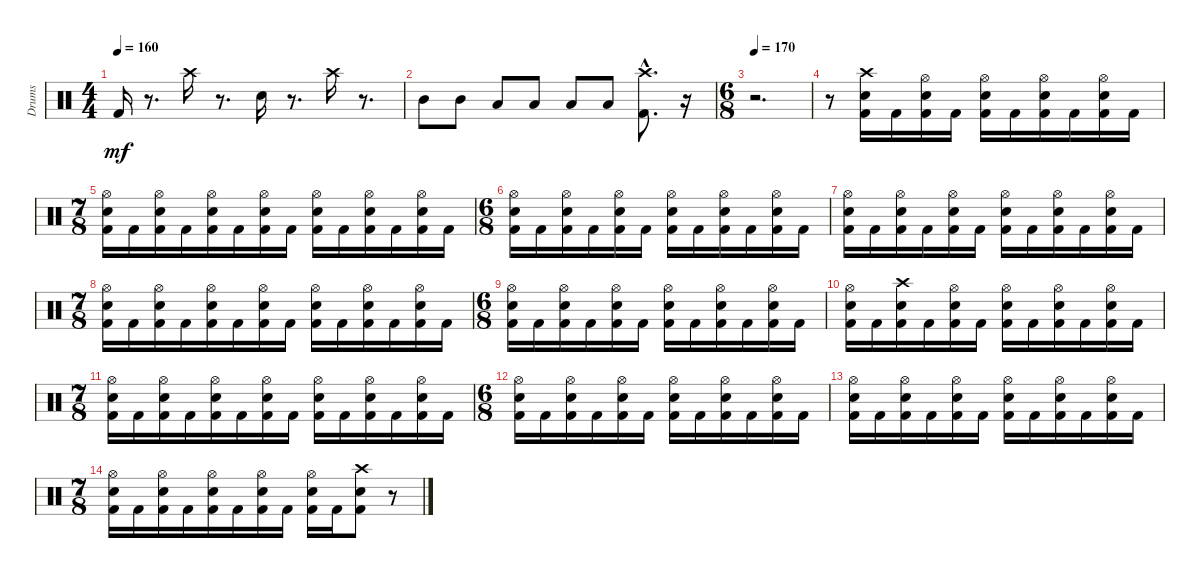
\track ("Drums               " "Drums     ") {instrument percussion}
\staff {score}
\articulation defaults
\ts (4 4)
\tempo 160
\clef neutral
\ks c "Kick (hit) 2".16{dy mf}
r.8{d} "Crash high (hit)".16 r.8{d} "Snare (hit) 2".16 r.8{d} "Crash high (hit)".16 r.8{d} |
"Mid Tom (hit)".8 "Mid Tom (hit)".8 "Low Tom (hit)".8 "Low Tom (hit)".8 "Low Floor Tom (hit)".8 "Low Floor Tom (hit)".8 ("Crash high (hit)"{hac} "Kick (hit) 2"{hac}).8{d} r.16 |
\ts (6 8)
\tempo 170
r.2{d} |
r.8 ("Kick (hit) 2" "Snare (hit) 2" "Crash high (hit)").16 "Kick (hit) 2".16 ("Kick (hit) 2" "Snare (hit) 2" "Hi-Hat (open)").16 "Kick (hit) 2".16 ("Kick (hit) 2" "Snare (hit) 2" "Hi-Hat (open)").16 "Kick (hit) 2".16 ("Kick (hit) 2" "Snare (hit) 2" "Hi-Hat (open)").16 "Kick (hit) 2".16 ("Kick (hit) 2" "Snare (hit) 2" "Hi-Hat (open)").16 "Kick (hit) 2".16 |
\ts (7 8)
("Kick (hit) 2" "Snare (hit) 2" "Hi-Hat (open)").16 "Kick (hit) 2".16 ("Kick (hit) 2" "Snare (hit) 2" "Hi-Hat (open)").16 "Kick (hit) 2".16 ("Kick (hit) 2" "Snare (hit) 2" "Hi-Hat (open)").16 "Kick (hit) 2".16 ("Kick (hit) 2" "Snare (hit) 2" "Hi-Hat (open)").16 "Kick (hit) 2".16 ("Kick (hit) 2" "Snare (hit) 2" "Hi-Hat (open)").16 "Kick (hit) 2".16 ("Kick (hit) 2" "Snare (hit) 2" "Hi-Hat (open)").16 "Kick (hit) 2".16 ("Kick (hit) 2" "Snare (hit) 2" "Hi-Hat (open)").16 "Kick (hit) 2".16 |
\ts (6 8)
("Kick (hit) 2" "Snare (hit) 2" "Hi-Hat (open)").16 "Kick (hit) 2".16 ("Kick (hit) 2" "Snare (hit) 2" "Hi-Hat (open)").16 "Kick (hit) 2".16 ("Kick (hit) 2" "Snare (hit) 2" "Hi-Hat (open)").16 "Kick (hit) 2".16 ("Kick (hit) 2" "Snare (hit) 2" "Hi-Hat (open)").16 "Kick (hit) 2".16 ("Kick (hit) 2" "Snare (hit) 2" "Hi-Hat (open)").16 "Kick (hit) 2".16 ("Kick (hit) 2" "Snare (hit) 2" "Hi-Hat (open)").16 "Kick (hit) 2".16 |
("Kick (hit) 2" "Snare (hit) 2" "Hi-Hat (open)").16 "Kick (hit) 2".16 ("Kick (hit) 2" "Snare (hit) 2" "Hi-Hat (open)").16 "Kick (hit) 2".16 ("Kick (hit) 2" "Snare (hit) 2" "Hi-Hat (open)").16 "Kick (hit) 2".16 ("Kick (hit) 2" "Snare (hit) 2" "Hi-Hat (open)").16 "Kick (hit) 2".16 ("Kick (hit) 2" "Snare (hit) 2" "Hi-Hat (open)").16 "Kick (hit) 2".16 ("Kick (hit) 2" "Snare (hit) 2" "Hi-Hat (open)").16 "Kick (hit) 2".16 |
\ts (7 8)
("Kick (hit) 2" "Snare (hit) 2" "Hi-Hat (open)").16 "Kick (hit) 2".16 ("Kick (hit) 2" "Snare (hit) 2" "Hi-Hat (open)").16 "Kick (hit) 2".16 ("Kick (hit) 2" "Snare (hit) 2" "Hi-Hat (open)").16 "Kick (hit) 2".16 ("Kick (hit) 2" "Snare (hit) 2" "Hi-Hat (open)").16 "Kick (hit) 2".16 ("Kick (hit) 2" "Snare (hit) 2" "Hi-Hat (open)").16 "Kick (hit) 2".16 ("Kick (hit) 2" "Snare (hit) 2" "Hi-Hat (open)").16 "Kick (hit) 2".16 ("Kick (hit) 2" "Snare (hit) 2" "Hi-Hat (open)").16 "Kick (hit) 2".16 |
\ts (6 8)
("Kick (hit) 2" "Snare (hit) 2" "Hi-Hat (open)").16 "Kick (hit) 2".16 ("Kick (hit) 2" "Snare (hit) 2" "Hi-Hat (open)").16 "Kick (hit) 2".16 ("Kick (hit) 2" "Snare (hit) 2" "Hi-Hat (open)").16 "Kick (hit) 2".16 ("Kick (hit) 2" "Snare (hit) 2" "Hi-Hat (open)").16 "Kick (hit) 2".16 ("Kick (hit) 2" "Snare (hit) 2" "Hi-Hat (open)").16 "Kick (hit) 2".16 ("Kick (hit) 2" "Snare (hit) 2" "Hi-Hat (open)").16 "Kick (hit) 2".16 |
("Kick (hit) 2" "Snare (hit) 2" "Hi-Hat (open)").16 "Kick (hit) 2".16 ("Kick (hit) 2" "Snare (hit) 2" "Crash high (hit)").16 "Kick (hit) 2".16 ("Kick (hit) 2" "Snare (hit) 2" "Hi-Hat (open)").16 "Kick (hit) 2".16 ("Kick (hit) 2" "Snare (hit) 2" "Hi-Hat (open)").16 "Kick (hit) 2".16 ("Kick (hit) 2" "Snare (hit) 2" "Hi-Hat (open)").16 "Kick (hit) 2".16 ("Kick (hit) 2" "Snare (hit) 2" "Hi-Hat (open)").16 "Kick (hit) 2".16 |
\ts (7 8)
("Kick (hit) 2" "Snare (hit) 2" "Hi-Hat (open)").16 "Kick (hit) 2".16 ("Kick (hit) 2" "Snare (hit) 2" "Hi-Hat (open)").16 "Kick (hit) 2".16 ("Kick (hit) 2" "Snare (hit) 2" "Hi-Hat (open)").16 "Kick (hit) 2".16 ("Kick (hit) 2" "Snare (hit) 2" "Hi-Hat (open)").16 "Kick (hit) 2".16 ("Kick (hit) 2" "Snare (hit) 2" "Hi-Hat (open)").16 "Kick (hit) 2".16 ("Kick (hit) 2" "Snare (hit) 2" "Hi-Hat (open)").16 "Kick (hit) 2".16 ("Kick (hit) 2" "Snare (hit) 2" "Hi-Hat (open)").16 "Kick (hit) 2".16 |
\ts (6 8)
("Kick (hit) 2" "Snare (hit) 2" "Hi-Hat (open)").16 "Kick (hit) 2".16 ("Kick (hit) 2" "Snare (hit) 2" "Hi-Hat (open)").16 "Kick (hit) 2".16 ("Kick (hit) 2" "Snare (hit) 2" "Hi-Hat (open)").16 "Kick (hit) 2".16 ("Kick (hit) 2" "Snare (hit) 2" "Hi-Hat (open)").16 "Kick (hit) 2".16 ("Kick (hit) 2" "Snare (hit) 2" "Hi-Hat (open)").16 "Kick (hit) 2".16 ("Kick (hit) 2" "Snare (hit) 2" "Hi-Hat (open)").16 "Kick (hit) 2".16 |
("Kick (hit) 2" "Snare (hit) 2" "Hi-Hat (open)").16 "Kick (hit) 2".16 ("Kick (hit) 2" "Snare (hit) 2" "Hi-Hat (open)").16 "Kick (hit) 2".16 ("Kick (hit) 2" "Snare (hit) 2" "Hi-Hat (open)").16 "Kick (hit) 2".16 ("Kick (hit) 2" "Snare (hit) 2" "Hi-Hat (open)").16 "Kick (hit) 2".16 ("Kick (hit) 2" "Snare (hit) 2" "Hi-Hat (open)").16 "Kick (hit) 2".16 ("Kick (hit) 2" "Snare (hit) 2" "Hi-Hat (open)").16 "Kick (hit) 2".16 |
\ts (7 8)
("Kick (hit) 2" "Snare (hit) 2" "Hi-Hat (open)").16 "Kick (hit) 2".16 ("Kick (hit) 2" "Snare (hit) 2" "Hi-Hat (open)").16 "Kick (hit) 2".16 ("Kick (hit) 2" "Snare (hit) 2" "Hi-Hat (open)").16 "Kick (hit) 2".16 ("Kick (hit) 2" "Snare (hit) 2" "Hi-Hat (open)").16 "Kick (hit) 2".16 ("Kick (hit) 2" "Snare (hit) 2" "Hi-Hat (open)").16 "Kick (hit) 2".16 ("Snare (hit) 2" "Crash high (hit)" "Kick (hit) 2").8 r.8
